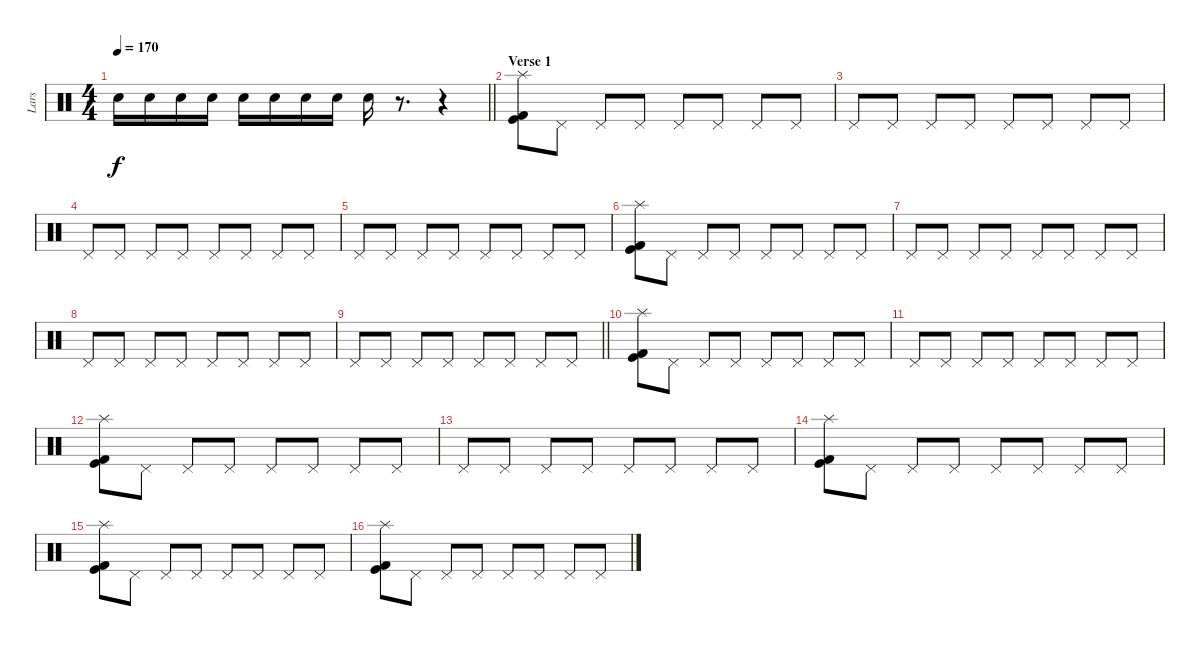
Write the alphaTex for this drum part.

\track ("Lars" "Lars") {instrument percussion}
\staff {score}
\articulation defaults
\ts (4 4)
\tempo 170
\clef neutral
\barLineRight lightlight
\ks c "Electric Snare (hit)".16{dy f} "Electric Snare (hit)".16 "Electric Snare (hit)".16 "Electric Snare (hit)".16 "Electric Snare (hit)".16 "Electric Snare (hit)".16 "Electric Snare (hit)".16 "Electric Snare (hit)".16 "Electric Snare (hit)".16
r.8{d} r.4 |
\section ("" "Verse 1")
("Splash (hit)" "Kick (hit)" "Kick (hit) 2").8 "Pedal Hi-Hat (hit)".8 "Pedal Hi-Hat (hit)".8 "Pedal Hi-Hat (hit)".8 "Pedal Hi-Hat (hit)".8 "Pedal Hi-Hat (hit)".8 "Pedal Hi-Hat (hit)".8 "Pedal Hi-Hat (hit)".8 |
"Pedal Hi-Hat (hit)".8 "Pedal Hi-Hat (hit)".8 "Pedal Hi-Hat (hit)".8 "Pedal Hi-Hat (hit)".8 "Pedal Hi-Hat (hit)".8 "Pedal Hi-Hat (hit)".8 "Pedal Hi-Hat (hit)".8 "Pedal Hi-Hat (hit)".8 |
"Pedal Hi-Hat (hit)".8 "Pedal Hi-Hat (hit)".8 "Pedal Hi-Hat (hit)".8 "Pedal Hi-Hat (hit)".8 "Pedal Hi-Hat (hit)".8 "Pedal Hi-Hat (hit)".8 "Pedal Hi-Hat (hit)".8 "Pedal Hi-Hat (hit)".8 |
"Pedal Hi-Hat (hit)".8 "Pedal Hi-Hat (hit)".8 "Pedal Hi-Hat (hit)".8 "Pedal Hi-Hat (hit)".8 "Pedal Hi-Hat (hit)".8 "Pedal Hi-Hat (hit)".8 "Pedal Hi-Hat (hit)".8 "Pedal Hi-Hat (hit)".8 |
("Splash (hit)" "Kick (hit)" "Kick (hit) 2").8 "Pedal Hi-Hat (hit)".8 "Pedal Hi-Hat (hit)".8 "Pedal Hi-Hat (hit)".8 "Pedal Hi-Hat (hit)".8 "Pedal Hi-Hat (hit)".8 "Pedal Hi-Hat (hit)".8 "Pedal Hi-Hat (hit)".8 |
"Pedal Hi-Hat (hit)".8 "Pedal Hi-Hat (hit)".8 "Pedal Hi-Hat (hit)".8 "Pedal Hi-Hat (hit)".8 "Pedal Hi-Hat (hit)".8 "Pedal Hi-Hat (hit)".8 "Pedal Hi-Hat (hit)".8 "Pedal Hi-Hat (hit)".8 |
"Pedal Hi-Hat (hit)".8 "Pedal Hi-Hat (hit)".8 "Pedal Hi-Hat (hit)".8 "Pedal Hi-Hat (hit)".8 "Pedal Hi-Hat (hit)".8 "Pedal Hi-Hat (hit)".8 "Pedal Hi-Hat (hit)".8 "Pedal Hi-Hat (hit)".8 |
\barLineRight lightlight "Pedal Hi-Hat (hit)".8 "Pedal Hi-Hat (hit)".8 "Pedal Hi-Hat (hit)".8 "Pedal Hi-Hat (hit)".8 "Pedal Hi-Hat (hit)".8 "Pedal Hi-Hat (hit)".8 "Pedal Hi-Hat (hit)".8 "Pedal Hi-Hat (hit)".8
|
\section ("" "")
("Splash (hit)" "Kick (hit)" "Kick (hit) 2").8 "Pedal Hi-Hat (hit)".8 "Pedal Hi-Hat (hit)".8 "Pedal Hi-Hat (hit)".8 "Pedal Hi-Hat (hit)".8 "Pedal Hi-Hat (hit)".8 "Pedal Hi-Hat (hit)".8 "Pedal Hi-Hat (hit)".8 |
"Pedal Hi-Hat (hit)".8 "Pedal Hi-Hat (hit)".8 "Pedal Hi-Hat (hit)".8 "Pedal Hi-Hat (hit)".8 "Pedal Hi-Hat (hit)".8 "Pedal Hi-Hat (hit)".8 "Pedal Hi-Hat (hit)".8 "Pedal Hi-Hat (hit)".8 |
("Splash (hit)" "Kick (hit)" "Kick (hit) 2").8 "Pedal Hi-Hat (hit)".8 "Pedal Hi-Hat (hit)".8 "Pedal Hi-Hat (hit)".8 "Pedal Hi-Hat (hit)".8 "Pedal Hi-Hat (hit)".8 "Pedal Hi-Hat (hit)".8 "Pedal Hi-Hat (hit)".8 |
"Pedal Hi-Hat (hit)".8 "Pedal Hi-Hat (hit)".8 "Pedal Hi-Hat (hit)".8 "Pedal Hi-Hat (hit)".8 "Pedal Hi-Hat (hit)".8 "Pedal Hi-Hat (hit)".8 "Pedal Hi-Hat (hit)".8 "Pedal Hi-Hat (hit)".8 |
("Splash (hit)" "Kick (hit)" "Kick (hit) 2").8 "Pedal Hi-Hat (hit)".8 "Pedal Hi-Hat (hit)".8 "Pedal Hi-Hat (hit)".8 "Pedal Hi-Hat (hit)".8 "Pedal Hi-Hat (hit)".8 "Pedal Hi-Hat (hit)".8 "Pedal Hi-Hat (hit)".8 |
("Splash (hit)" "Kick (hit)" "Kick (hit) 2").8 "Pedal Hi-Hat (hit)".8 "Pedal Hi-Hat (hit)".8 "Pedal Hi-Hat (hit)".8 "Pedal Hi-Hat (hit)".8 "Pedal Hi-Hat (hit)".8 "Pedal Hi-Hat (hit)".8 "Pedal Hi-Hat (hit)".8 |
("Splash (hit)" "Kick (hit)" "Kick (hit) 2").8 "Pedal Hi-Hat (hit)".8 "Pedal Hi-Hat (hit)".8 "Pedal Hi-Hat (hit)".8 "Pedal Hi-Hat (hit)".8 "Pedal Hi-Hat (hit)".8 "Pedal Hi-Hat (hit)".8 "Pedal Hi-Hat (hit)".8
